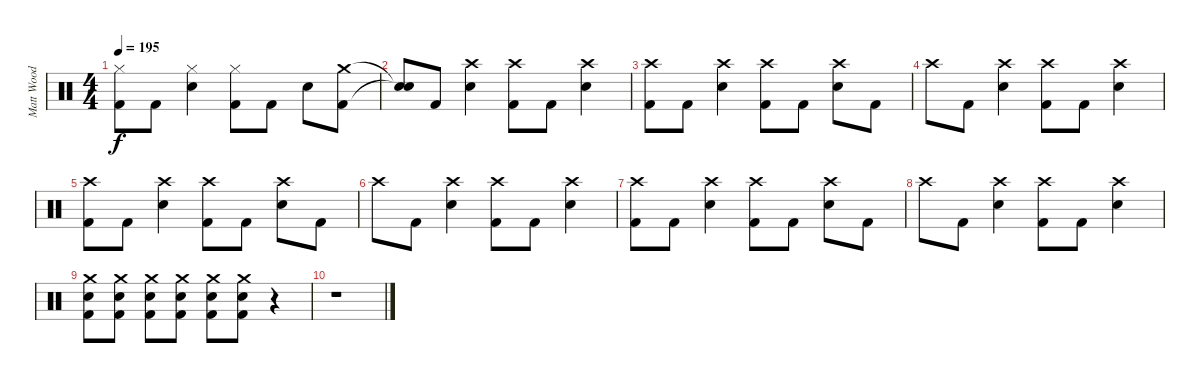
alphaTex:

\track ("Matt Wood" "Matt Wood") {instrument percussion}
\staff {score}
\articulation defaults
\ts (4 4)
\tempo 195
\clef neutral
\ks c
("Hi-Hat (closed)" "Kick (hit) 2").8{dy f} "Kick (hit) 2".8 ("Hi-Hat (closed)" "Snare (hit) 2").4 ("Hi-Hat (closed)" "Kick (hit) 2").8 "Kick (hit) 2".8 "Snare (hit) 2".8 ("Crash medium (hit)" "Kick (hit) 2").8 |
("Snare (hit)"{t} "Snare (hit)"{t}).8 "Kick (hit) 2".8 ("Crash high (hit)" "Snare (hit) 2").4 ("Crash high (hit)" "Kick (hit) 2").8 "Kick (hit) 2".8 ("Crash high (hit)" "Snare (hit) 2").4 |
("Crash high (hit)" "Kick (hit) 2").8 "Kick (hit) 2".8 ("Crash high (hit)" "Snare (hit) 2").4 ("Crash high (hit)" "Kick (hit) 2").8 "Kick (hit) 2".8 ("Crash high (hit)" "Snare (hit) 2").8 "Kick (hit) 2".8 |
"Crash high (hit)".8 "Kick (hit) 2".8 ("Crash high (hit)" "Snare (hit) 2").4 ("Crash high (hit)" "Kick (hit) 2").8 "Kick (hit) 2".8 ("Crash high (hit)" "Snare (hit) 2").4 |
("Crash high (hit)" "Kick (hit) 2").8 "Kick (hit) 2".8 ("Crash high (hit)" "Snare (hit) 2").4 ("Crash high (hit)" "Kick (hit) 2").8 "Kick (hit) 2".8 ("Crash high (hit)" "Snare (hit) 2").8 "Kick (hit) 2".8 |
"Crash high (hit)".8 "Kick (hit) 2".8 ("Crash high (hit)" "Snare (hit) 2").4 ("Crash high (hit)" "Kick (hit) 2").8 "Kick (hit) 2".8 ("Crash high (hit)" "Snare (hit) 2").4 |
("Crash high (hit)" "Kick (hit) 2").8 "Kick (hit) 2".8 ("Crash high (hit)" "Snare (hit) 2").4 ("Crash high (hit)" "Kick (hit) 2").8 "Kick (hit) 2".8 ("Crash high (hit)" "Snare (hit) 2").8 "Kick (hit) 2".8 |
"Crash high (hit)".8 "Kick (hit) 2".8 ("Crash high (hit)" "Snare (hit) 2").4 ("Crash high (hit)" "Kick (hit) 2").8 "Kick (hit) 2".8 ("Crash high (hit)" "Snare (hit) 2").4 |
("Crash medium (hit)" "Snare (hit) 2" "Kick (hit) 2").8 ("Crash medium (hit)" "Snare (hit) 2" "Kick (hit) 2").8 ("Crash medium (hit)" "Snare (hit) 2" "Kick (hit) 2").8 ("Crash medium (hit)" "Snare (hit) 2" "Kick (hit) 2").8 ("Crash medium (hit)" "Snare (hit) 2" "Kick (hit) 2").8 ("Crash medium (hit)" "Snare (hit) 2" "Kick (hit) 2").8 r.4 |
r.1
